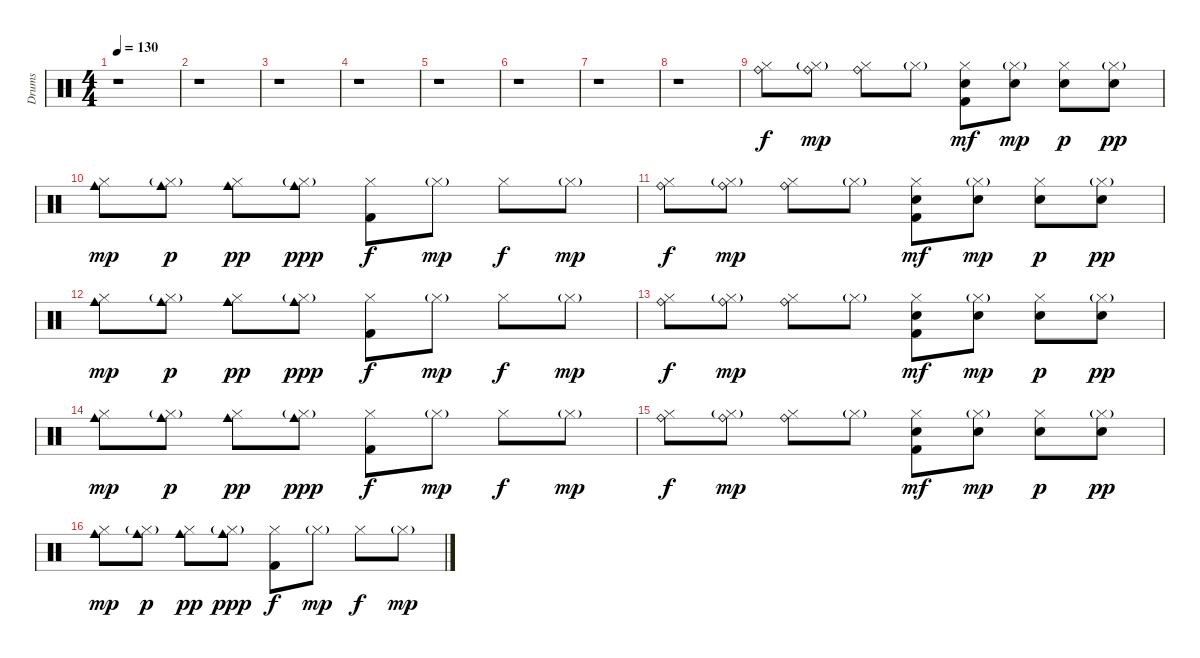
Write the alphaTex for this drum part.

\track ("Drums" "Drums") {instrument percussion}
\staff {score}
\articulation defaults
\ts (4 4)
\tempo 130
\clef neutral
\ks c
r.1{dy f} |
r.1 |
r.1 |
r.1 |
r.1 |
r.1 |
r.1 |
r.1 |
("Ride (bell)" "Hi-Hat (closed)").8 ("Ride (bell)" "Hi-Hat (closed)"{g}).8{dy mp} ("Ride (bell)" "Hi-Hat (closed)").8 "Hi-Hat (closed)"{g}.8 ("Hi-Hat (closed)" "Hand Clap (hit)" "Kick (hit) 2").8{dy mf} ("Hi-Hat (closed)"{g} "Hand Clap (hit)").8{dy mp} ("Hi-Hat (closed)" "Hand Clap (hit)").8{dy p} ("Hi-Hat (closed)"{g} "Hand Clap (hit)").8{dy pp} |
("Hi-Hat (closed)" "Cowbell medium (hit)").8{dy mp} ("Hi-Hat (closed)"{g} "Cowbell medium (hit)").8{dy p} ("Hi-Hat (closed)" "Cowbell medium (hit)").8{dy pp} ("Hi-Hat (closed)"{g} "Cowbell medium (hit)").8{dy ppp} ("Hi-Hat (closed)" "Kick (hit) 2").8{dy f} "Hi-Hat (closed)"{g}.8{dy mp} "Hi-Hat (closed)".8{dy f} "Hi-Hat (closed)"{g}.8{dy mp} |
("Ride (bell)" "Hi-Hat (closed)").8{dy f} ("Ride (bell)" "Hi-Hat (closed)"{g}).8{dy mp} ("Ride (bell)" "Hi-Hat (closed)").8 "Hi-Hat (closed)"{g}.8 ("Hi-Hat (closed)" "Hand Clap (hit)" "Kick (hit) 2").8{dy mf} ("Hi-Hat (closed)"{g} "Hand Clap (hit)").8{dy mp} ("Hi-Hat (closed)" "Hand Clap (hit)").8{dy p} ("Hi-Hat (closed)"{g} "Hand Clap (hit)").8{dy pp} |
("Hi-Hat (closed)" "Cowbell medium (hit)").8{dy mp} ("Hi-Hat (closed)"{g} "Cowbell medium (hit)").8{dy p} ("Hi-Hat (closed)" "Cowbell medium (hit)").8{dy pp} ("Hi-Hat (closed)"{g} "Cowbell medium (hit)").8{dy ppp} ("Hi-Hat (closed)" "Kick (hit) 2").8{dy f} "Hi-Hat (closed)"{g}.8{dy mp} "Hi-Hat (closed)".8{dy f} "Hi-Hat (closed)"{g}.8{dy mp} |
("Ride (bell)" "Hi-Hat (closed)").8{dy f} ("Ride (bell)" "Hi-Hat (closed)"{g}).8{dy mp} ("Ride (bell)" "Hi-Hat (closed)").8 "Hi-Hat (closed)"{g}.8 ("Hi-Hat (closed)" "Hand Clap (hit)" "Kick (hit) 2").8{dy mf} ("Hi-Hat (closed)"{g} "Hand Clap (hit)").8{dy mp} ("Hi-Hat (closed)" "Hand Clap (hit)").8{dy p} ("Hi-Hat (closed)"{g} "Hand Clap (hit)").8{dy pp} |
("Hi-Hat (closed)" "Cowbell medium (hit)").8{dy mp} ("Hi-Hat (closed)"{g} "Cowbell medium (hit)").8{dy p} ("Hi-Hat (closed)" "Cowbell medium (hit)").8{dy pp} ("Hi-Hat (closed)"{g} "Cowbell medium (hit)").8{dy ppp} ("Hi-Hat (closed)" "Kick (hit) 2").8{dy f} "Hi-Hat (closed)"{g}.8{dy mp} "Hi-Hat (closed)".8{dy f} "Hi-Hat (closed)"{g}.8{dy mp} |
("Ride (bell)" "Hi-Hat (closed)").8{dy f} ("Ride (bell)" "Hi-Hat (closed)"{g}).8{dy mp} ("Ride (bell)" "Hi-Hat (closed)").8 "Hi-Hat (closed)"{g}.8 ("Hi-Hat (closed)" "Hand Clap (hit)" "Kick (hit) 2").8{dy mf} ("Hi-Hat (closed)"{g} "Hand Clap (hit)").8{dy mp} ("Hi-Hat (closed)" "Hand Clap (hit)").8{dy p} ("Hi-Hat (closed)"{g} "Hand Clap (hit)").8{dy pp} |
("Hi-Hat (closed)" "Cowbell medium (hit)").8{dy mp} ("Hi-Hat (closed)"{g} "Cowbell medium (hit)").8{dy p} ("Hi-Hat (closed)" "Cowbell medium (hit)").8{dy pp} ("Hi-Hat (closed)"{g} "Cowbell medium (hit)").8{dy ppp} ("Hi-Hat (closed)" "Kick (hit) 2").8{dy f} "Hi-Hat (closed)"{g}.8{dy mp} "Hi-Hat (closed)".8{dy f} "Hi-Hat (closed)"{g}.8{dy mp}
